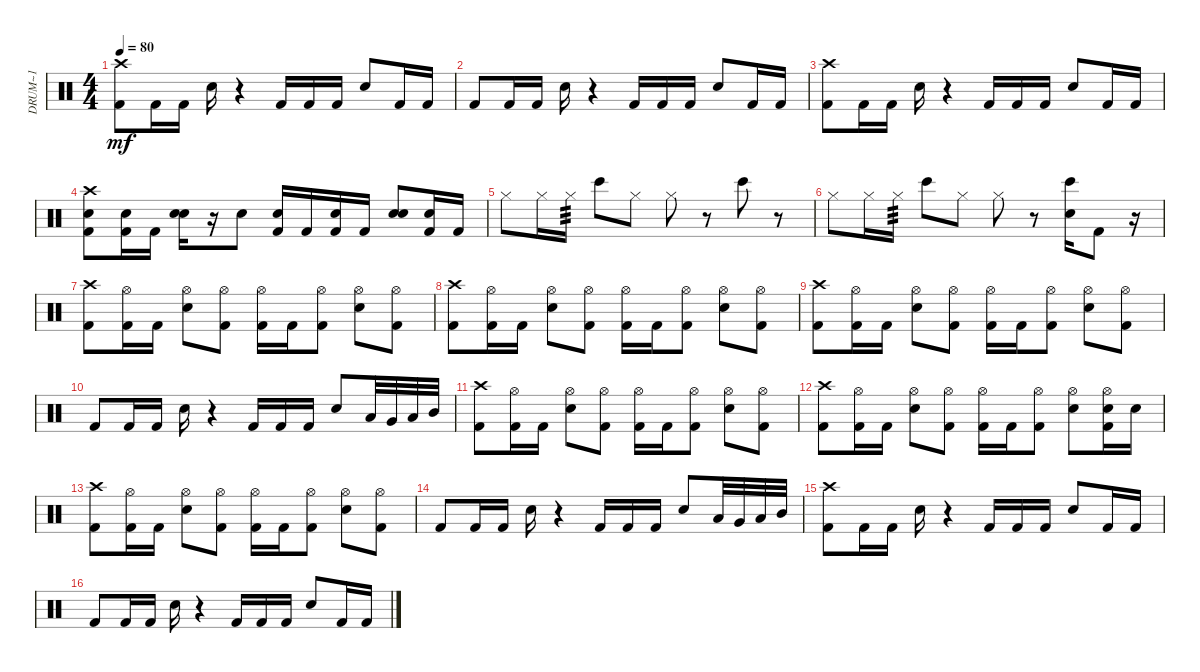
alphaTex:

\track ("DRUM~1" "DRUM~1") {instrument percussion}
\staff {score}
\articulation defaults
\ts (4 4)
\tempo 80
\clef neutral
\ks c
("Crash high (hit)" "Kick (hit) 2").8{dy mf} "Kick (hit) 2".16 "Kick (hit) 2".16 "Snare (hit) 2".16 r.4 "Kick (hit) 2".16 "Kick (hit) 2".16 "Kick (hit) 2".16 "Snare (hit) 2".8 "Kick (hit) 2".16 "Kick (hit) 2".16 |
"Kick (hit) 2".8 "Kick (hit) 2".16 "Kick (hit) 2".16 "Snare (hit) 2".16 r.4 "Kick (hit) 2".16 "Kick (hit) 2".16 "Kick (hit) 2".16 "Snare (hit) 2".8 "Kick (hit) 2".16 "Kick (hit) 2".16 |
("Crash high (hit)" "Kick (hit) 2").8 "Kick (hit) 2".16 "Kick (hit) 2".16 "Snare (hit) 2".16 r.4 "Kick (hit) 2".16 "Kick (hit) 2".16 "Kick (hit) 2".16 "Snare (hit) 2".8 "Kick (hit) 2".16 "Kick (hit) 2".16 |
("Crash high (hit)" "Kick (hit) 2" "Hand Clap (hit)").8 ("Kick (hit) 2" "Hand Clap (hit)").16 "Kick (hit) 2".16 ("Snare (hit) 2" "Hand Clap (hit)").16 r.16 "Hand Clap (hit)".8 ("Kick (hit) 2" "Hand Clap (hit)").16 "Kick (hit) 2".16 ("Kick (hit) 2" "Hand Clap (hit)").16 "Kick (hit) 2".16 ("Snare (hit) 2" "Hand Clap (hit)").8 ("Kick (hit) 2" "Hand Clap (hit)").16 "Kick (hit) 2".16 |
"Hi-Hat (closed)".8 "Hi-Hat (closed)".16 "Hi-Hat (closed)".16{tp 3} "Bongo High (hit)".8 "Hi-Hat (closed)".8 "Hi-Hat (closed)".8 r.8 "Bongo High (hit)".8 r.8 |
"Hi-Hat (closed)".8 "Hi-Hat (closed)".16 "Hi-Hat (closed)".16{tp 3} "Bongo High (hit)".8 "Hi-Hat (closed)".8 "Hi-Hat (closed)".8 r.8 ("Snare (hit) 2" "Bongo High (hit)").16 "Kick (hit) 2".8 r.16 |
("Crash high (hit)" "Kick (hit) 2").8 ("Hi-Hat (open)" "Kick (hit) 2").16 "Kick (hit) 2".16 ("Hi-Hat (open)" "Snare (hit) 2").8 ("Hi-Hat (open)" "Kick (hit) 2").8 ("Hi-Hat (open)" "Kick (hit) 2").16 "Kick (hit) 2".16 ("Hi-Hat (open)" "Kick (hit) 2").8 ("Hi-Hat (open)" "Snare (hit) 2").8 ("Hi-Hat (open)" "Kick (hit) 2").8 |
("Crash high (hit)" "Kick (hit) 2").8 ("Hi-Hat (open)" "Kick (hit) 2").16 "Kick (hit) 2".16 ("Hi-Hat (open)" "Snare (hit) 2").8 ("Hi-Hat (open)" "Kick (hit) 2").8 ("Hi-Hat (open)" "Kick (hit) 2").16 "Kick (hit) 2".16 ("Hi-Hat (open)" "Kick (hit) 2").8 ("Hi-Hat (open)" "Snare (hit) 2").8 ("Hi-Hat (open)" "Kick (hit) 2").8 |
("Crash high (hit)" "Kick (hit) 2").8 ("Hi-Hat (open)" "Kick (hit) 2").16 "Kick (hit) 2".16 ("Hi-Hat (open)" "Snare (hit) 2").8 ("Hi-Hat (open)" "Kick (hit) 2").8 ("Hi-Hat (open)" "Kick (hit) 2").16 "Kick (hit) 2".16 ("Hi-Hat (open)" "Kick (hit) 2").8 ("Hi-Hat (open)" "Snare (hit) 2").8 ("Hi-Hat (open)" "Kick (hit) 2").8 |
"Kick (hit) 2".8 "Kick (hit) 2".16 "Kick (hit) 2".16 "Snare (hit) 2".16 r.4 "Kick (hit) 2".16 "Kick (hit) 2".16 "Kick (hit) 2".16 "Snare (hit) 2".8 "Low Floor Tom (hit)".32 "Very Low Tom (hit)".32 "Low Tom (hit)".32 "Mid Tom (hit)".32 |
("Crash high (hit)" "Kick (hit) 2").8 ("Hi-Hat (open)" "Kick (hit) 2").16 "Kick (hit) 2".16 ("Hi-Hat (open)" "Snare (hit) 2").8 ("Hi-Hat (open)" "Kick (hit) 2").8 ("Hi-Hat (open)" "Kick (hit) 2").16 "Kick (hit) 2".16 ("Hi-Hat (open)" "Kick (hit) 2").8 ("Hi-Hat (open)" "Snare (hit) 2").8 ("Hi-Hat (open)" "Kick (hit) 2").8 |
("Crash high (hit)" "Kick (hit) 2").8 ("Hi-Hat (open)" "Kick (hit) 2").16 "Kick (hit) 2".16 ("Hi-Hat (open)" "Snare (hit) 2").8 ("Hi-Hat (open)" "Kick (hit) 2").8 ("Hi-Hat (open)" "Kick (hit) 2").16 "Kick (hit) 2".16 ("Hi-Hat (open)" "Kick (hit) 2").8 ("Hi-Hat (open)" "Snare (hit) 2").8 ("Hi-Hat (open)" "Snare (hit) 2" "Kick (hit) 2").16 "Snare (hit) 2".16 |
("Crash high (hit)" "Kick (hit) 2").8 ("Hi-Hat (open)" "Kick (hit) 2").16 "Kick (hit) 2".16 ("Hi-Hat (open)" "Snare (hit) 2").8 ("Hi-Hat (open)" "Kick (hit) 2").8 ("Hi-Hat (open)" "Kick (hit) 2").16 "Kick (hit) 2".16 ("Hi-Hat (open)" "Kick (hit) 2").8 ("Hi-Hat (open)" "Snare (hit) 2").8 ("Hi-Hat (open)" "Kick (hit) 2").8 |
"Kick (hit) 2".8 "Kick (hit) 2".16 "Kick (hit) 2".16 "Snare (hit) 2".16 r.4 "Kick (hit) 2".16 "Kick (hit) 2".16 "Kick (hit) 2".16 "Snare (hit) 2".8 "Low Floor Tom (hit)".32 "Very Low Tom (hit)".32 "Low Tom (hit)".32 "Mid Tom (hit)".32 |
("Crash high (hit)" "Kick (hit) 2").8 "Kick (hit) 2".16 "Kick (hit) 2".16 "Snare (hit) 2".16 r.4 "Kick (hit) 2".16 "Kick (hit) 2".16 "Kick (hit) 2".16 "Snare (hit) 2".8 "Kick (hit) 2".16 "Kick (hit) 2".16 |
"Kick (hit) 2".8 "Kick (hit) 2".16 "Kick (hit) 2".16 "Snare (hit) 2".16 r.4 "Kick (hit) 2".16 "Kick (hit) 2".16 "Kick (hit) 2".16 "Snare (hit) 2".8 "Kick (hit) 2".16 "Kick (hit) 2".16
